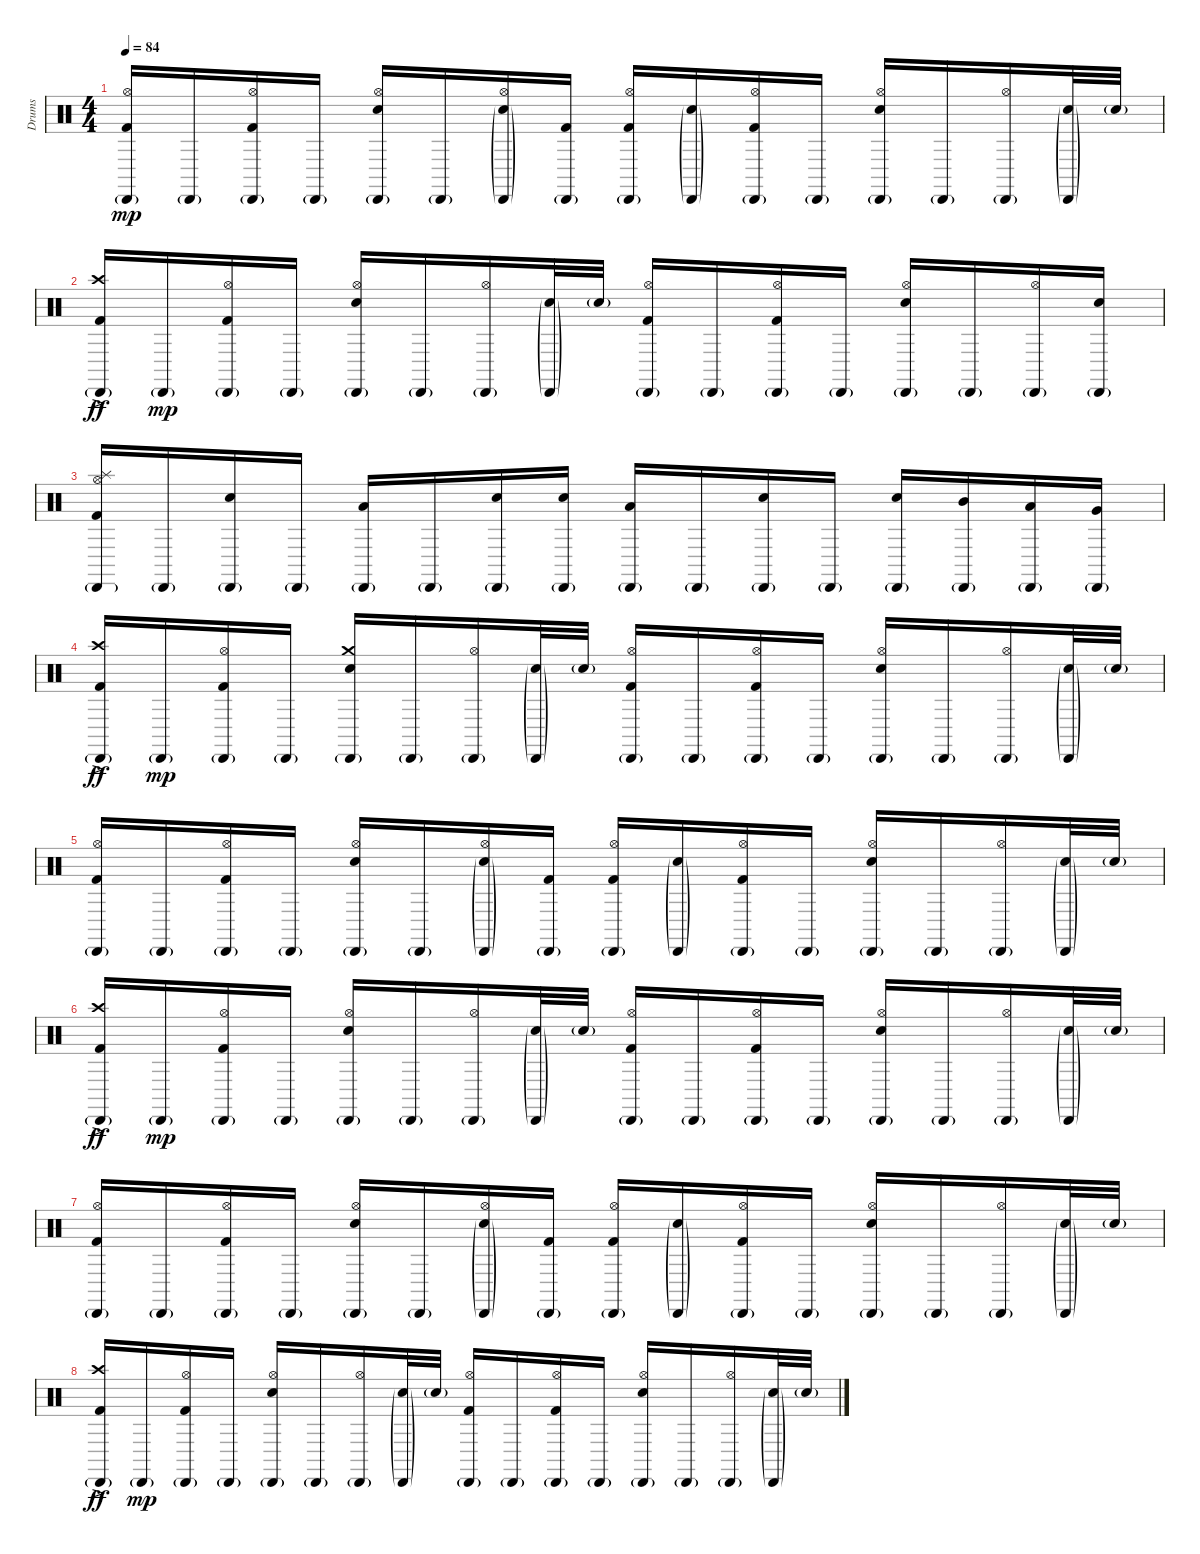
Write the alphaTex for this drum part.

\track ("Drums" "Drums") {instrument percussion}
\staff {score}
\articulation defaults
\ts (4 4)
\tempo 84
\clef neutral
\ks c
("Hi-Hat (open)" "Cabasa (hit)"{g} "Kick (hit) 2").16{dy mp} "Cabasa (hit)"{g}.16 ("Hi-Hat (open)" "Cabasa (hit)"{g} "Kick (hit) 2").16 "Cabasa (hit)"{g}.16 ("Hi-Hat (open)" "Cabasa (hit)"{g} "Electric Snare (hit)").16 "Cabasa (hit)"{g}.16 ("Hi-Hat (open)" "Cabasa (hit)"{g} "Electric Snare (hit)"{g}).16 ("Cabasa (hit)"{g} "Kick (hit) 2").16 ("Hi-Hat (open)" "Cabasa (hit)"{g} "Kick (hit) 2").16 ("Cabasa (hit)"{g} "Electric Snare (hit)"{g}).16 ("Hi-Hat (open)" "Cabasa (hit)"{g} "Kick (hit) 2").16 "Cabasa (hit)"{g}.16 ("Hi-Hat (open)" "Cabasa (hit)"{g} "Electric Snare (hit)").16 "Cabasa (hit)"{g}.16 ("Hi-Hat (open)" "Cabasa (hit)"{g}).16 ("Cabasa (hit)"{g} "Electric Snare (hit)"{g}).32 "Electric Snare (hit)"{g}.32 |
("Crash high (hit)" "Cabasa (hit)"{g} "Kick (hit) 2"{ac}).16{dy ff} "Cabasa (hit)"{g}.16{dy mp} ("Hi-Hat (open)" "Cabasa (hit)"{g} "Kick (hit) 2").16 "Cabasa (hit)"{g}.16 ("Hi-Hat (open)" "Cabasa (hit)"{g} "Electric Snare (hit)").16 "Cabasa (hit)"{g}.16 ("Hi-Hat (open)" "Cabasa (hit)"{g}).16 ("Cabasa (hit)"{g} "Electric Snare (hit)"{g}).32 "Electric Snare (hit)"{g}.32 ("Hi-Hat (open)" "Cabasa (hit)"{g} "Kick (hit) 2").16 "Cabasa (hit)"{g}.16 ("Hi-Hat (open)" "Cabasa (hit)"{g} "Kick (hit) 2").16 "Cabasa (hit)"{g}.16 ("Hi-Hat (open)" "Cabasa (hit)"{g} "Electric Snare (hit)").16 "Cabasa (hit)"{g}.16 ("Hi-Hat (open)" "Cabasa (hit)"{g}).16 ("Cabasa (hit)"{g} "Electric Snare (hit)").16 |
("Hi-Hat (open)" "Splash (hit)" "Cabasa (hit)"{g} "Kick (hit) 2").16 "Cabasa (hit)"{g}.16 ("Cabasa (hit)"{g} "Electric Snare (hit)").16 "Cabasa (hit)"{g}.16 ("Cabasa (hit)"{g} "Low Tom (hit)").16 "Cabasa (hit)"{g}.16 ("Cabasa (hit)"{g} "Electric Snare (hit)").16 ("Cabasa (hit)"{g} "Electric Snare (hit)").16 ("Cabasa (hit)"{g} "Low Tom (hit)").16 "Cabasa (hit)"{g}.16 ("Cabasa (hit)"{g} "Electric Snare (hit)").16 "Cabasa (hit)"{g}.16 ("Cabasa (hit)"{g} "Electric Snare (hit)").16 ("Cabasa (hit)"{g} "Mid Tom (hit)").16 ("Cabasa (hit)"{g} "Low Tom (hit)").16 ("Cabasa (hit)"{g} "Very Low Tom (hit)").16 |
("Crash high (hit)" "Cabasa (hit)"{g} "Kick (hit) 2"{ac}).16{dy ff} "Cabasa (hit)"{g}.16{dy mp} ("Hi-Hat (open)" "Cabasa (hit)"{g} "Kick (hit) 2").16 "Cabasa (hit)"{g}.16 ("Crash medium (hit)" "Cabasa (hit)"{g} "Electric Snare (hit)").16 "Cabasa (hit)"{g}.16 ("Hi-Hat (open)" "Cabasa (hit)"{g}).16 ("Cabasa (hit)"{g} "Electric Snare (hit)"{g}).32 "Electric Snare (hit)"{g}.32 ("Hi-Hat (open)" "Cabasa (hit)"{g} "Kick (hit) 2").16 "Cabasa (hit)"{g}.16 ("Hi-Hat (open)" "Cabasa (hit)"{g} "Kick (hit) 2").16 "Cabasa (hit)"{g}.16 ("Hi-Hat (open)" "Cabasa (hit)"{g} "Electric Snare (hit)").16 "Cabasa (hit)"{g}.16 ("Hi-Hat (open)" "Cabasa (hit)"{g}).16 ("Cabasa (hit)"{g} "Electric Snare (hit)"{g}).32 "Electric Snare (hit)"{g}.32 |
("Hi-Hat (open)" "Cabasa (hit)"{g} "Kick (hit) 2").16 "Cabasa (hit)"{g}.16 ("Hi-Hat (open)" "Cabasa (hit)"{g} "Kick (hit) 2").16 "Cabasa (hit)"{g}.16 ("Hi-Hat (open)" "Cabasa (hit)"{g} "Electric Snare (hit)").16 "Cabasa (hit)"{g}.16 ("Hi-Hat (open)" "Cabasa (hit)"{g} "Electric Snare (hit)"{g}).16 ("Cabasa (hit)"{g} "Kick (hit) 2").16 ("Hi-Hat (open)" "Cabasa (hit)"{g} "Kick (hit) 2").16 ("Cabasa (hit)"{g} "Electric Snare (hit)"{g}).16 ("Hi-Hat (open)" "Cabasa (hit)"{g} "Kick (hit) 2").16 "Cabasa (hit)"{g}.16 ("Hi-Hat (open)" "Cabasa (hit)"{g} "Electric Snare (hit)").16 "Cabasa (hit)"{g}.16 ("Hi-Hat (open)" "Cabasa (hit)"{g}).16 ("Cabasa (hit)"{g} "Electric Snare (hit)"{g}).32 "Electric Snare (hit)"{g}.32 |
("Crash high (hit)" "Cabasa (hit)"{g} "Kick (hit) 2"{ac}).16{dy ff} "Cabasa (hit)"{g}.16{dy mp} ("Hi-Hat (open)" "Cabasa (hit)"{g} "Kick (hit) 2").16 "Cabasa (hit)"{g}.16 ("Hi-Hat (open)" "Cabasa (hit)"{g} "Electric Snare (hit)").16 "Cabasa (hit)"{g}.16 ("Hi-Hat (open)" "Cabasa (hit)"{g}).16 ("Cabasa (hit)"{g} "Electric Snare (hit)"{g}).32 "Electric Snare (hit)"{g}.32 ("Hi-Hat (open)" "Cabasa (hit)"{g} "Kick (hit) 2").16 "Cabasa (hit)"{g}.16 ("Hi-Hat (open)" "Cabasa (hit)"{g} "Kick (hit) 2").16 "Cabasa (hit)"{g}.16 ("Hi-Hat (open)" "Cabasa (hit)"{g} "Electric Snare (hit)").16 "Cabasa (hit)"{g}.16 ("Hi-Hat (open)" "Cabasa (hit)"{g}).16 ("Cabasa (hit)"{g} "Electric Snare (hit)"{g}).32 "Electric Snare (hit)"{g}.32 |
("Hi-Hat (open)" "Cabasa (hit)"{g} "Kick (hit) 2").16 "Cabasa (hit)"{g}.16 ("Hi-Hat (open)" "Cabasa (hit)"{g} "Kick (hit) 2").16 "Cabasa (hit)"{g}.16 ("Hi-Hat (open)" "Cabasa (hit)"{g} "Electric Snare (hit)").16 "Cabasa (hit)"{g}.16 ("Hi-Hat (open)" "Cabasa (hit)"{g} "Electric Snare (hit)"{g}).16 ("Cabasa (hit)"{g} "Kick (hit) 2").16 ("Hi-Hat (open)" "Cabasa (hit)"{g} "Kick (hit) 2").16 ("Cabasa (hit)"{g} "Electric Snare (hit)"{g}).16 ("Hi-Hat (open)" "Cabasa (hit)"{g} "Kick (hit) 2").16 "Cabasa (hit)"{g}.16 ("Hi-Hat (open)" "Cabasa (hit)"{g} "Electric Snare (hit)").16 "Cabasa (hit)"{g}.16 ("Hi-Hat (open)" "Cabasa (hit)"{g}).16 ("Cabasa (hit)"{g} "Electric Snare (hit)"{g}).32 "Electric Snare (hit)"{g}.32 |
("Crash high (hit)" "Cabasa (hit)"{g} "Kick (hit) 2"{ac}).16{dy ff} "Cabasa (hit)"{g}.16{dy mp} ("Hi-Hat (open)" "Cabasa (hit)"{g} "Kick (hit) 2").16 "Cabasa (hit)"{g}.16 ("Hi-Hat (open)" "Cabasa (hit)"{g} "Electric Snare (hit)").16 "Cabasa (hit)"{g}.16 ("Hi-Hat (open)" "Cabasa (hit)"{g}).16 ("Cabasa (hit)"{g} "Electric Snare (hit)"{g}).32 "Electric Snare (hit)"{g}.32 ("Hi-Hat (open)" "Cabasa (hit)"{g} "Kick (hit) 2").16 "Cabasa (hit)"{g}.16 ("Hi-Hat (open)" "Cabasa (hit)"{g} "Kick (hit) 2").16 "Cabasa (hit)"{g}.16 ("Hi-Hat (open)" "Cabasa (hit)"{g} "Electric Snare (hit)").16 "Cabasa (hit)"{g}.16 ("Hi-Hat (open)" "Cabasa (hit)"{g}).16 ("Cabasa (hit)"{g} "Electric Snare (hit)"{g}).32 "Electric Snare (hit)"{g}.32
